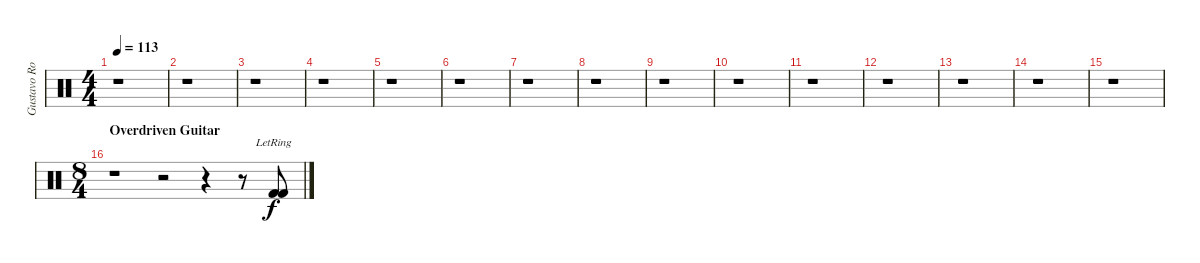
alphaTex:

\track ("Gustavo Rowek" "Gustavo Ro") {instrument percussion}
\staff {score}
\articulation defaults
\ts (4 4)
\tempo 113
\clef neutral
\ks c
r.1{dy f} |
r.1 |
r.1 |
r.1 |
r.1 |
r.1 |
r.1 |
r.1 |
r.1 |
r.1 |
r.1 |
r.1 |
r.1 |
r.1 |
r.1 |
\ts (8 4)
\section ("" "Overdriven Guitar")
r.1 r.2 r.4 r.8 ("Kick (hit) 2"{lr} "Kick (hit) 2"{lr}).8
